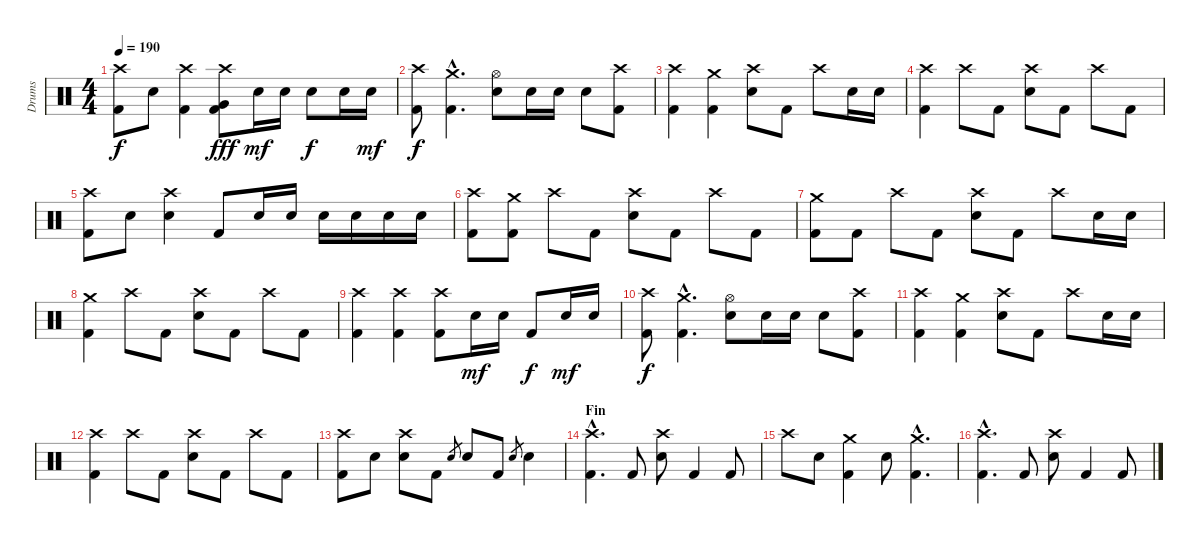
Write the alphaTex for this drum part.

\track ("Drums" "Drums") {instrument percussion}
\staff {score}
\articulation defaults
\ts (4 4)
\tempo 190
\clef neutral
\ks c
("Crash high (hit)" "Kick (hit) 2").8{dy f} "Electric Snare (hit)".8 ("Crash high (hit)" "Kick (hit) 2").4 ("Crash high (hit)" "Very Low Tom (hit)" "Kick (hit) 2").8{dy fff} "Electric Snare (hit)".16{dy mf} "Electric Snare (hit)".16 "Electric Snare (hit)".8{dy f} "Electric Snare (hit)".16 "Electric Snare (hit)".16{dy mf} |
("Crash high (hit)" "Kick (hit) 2").8{dy f} ("Crash medium (hit)"{hac} "Kick (hit) 2"{hac}).4{d} ("Hi-Hat (open)" "Electric Snare (hit)").8 "Electric Snare (hit)".16 "Electric Snare (hit)".16 "Electric Snare (hit)".8 ("Crash high (hit)" "Kick (hit) 2").8 |
("Crash high (hit)" "Kick (hit) 2").4 ("Crash medium (hit)" "Kick (hit) 2").4 ("Crash high (hit)" "Electric Snare (hit)").8 "Kick (hit) 2".8 "Crash high (hit)".8 "Electric Snare (hit)".16 "Electric Snare (hit)".16 |
("Crash high (hit)" "Kick (hit) 2").4 "Crash high (hit)".8 "Kick (hit) 2".8 ("Crash high (hit)" "Electric Snare (hit)").8 "Kick (hit) 2".8 "Crash high (hit)".8 "Kick (hit) 2".8 |
("Crash high (hit)" "Kick (hit) 2").8 "Electric Snare (hit)".8 ("Crash high (hit)" "Electric Snare (hit)").4 "Kick (hit) 2".8 "Electric Snare (hit)".16 "Electric Snare (hit)".16 "Electric Snare (hit)".16 "Electric Snare (hit)".16 "Electric Snare (hit)".16 "Electric Snare (hit)".16 |
("Crash high (hit)" "Kick (hit) 2").8 ("Crash medium (hit)" "Kick (hit) 2").8 "Crash high (hit)".8 "Kick (hit) 2".8 ("Crash high (hit)" "Electric Snare (hit)").8 "Kick (hit) 2".8 "Crash high (hit)".8 "Kick (hit) 2".8 |
("Crash medium (hit)" "Kick (hit) 2").8 "Kick (hit) 2".8 "Crash high (hit)".8 "Kick (hit) 2".8 ("Crash high (hit)" "Electric Snare (hit)").8 "Kick (hit) 2".8 "Crash high (hit)".8 "Electric Snare (hit)".16 "Electric Snare (hit)".16 |
("Crash medium (hit)" "Kick (hit) 2").4 "Crash high (hit)".8 "Kick (hit) 2".8 ("Crash high (hit)" "Electric Snare (hit)").8 "Kick (hit) 2".8 "Crash high (hit)".8 "Kick (hit) 2".8 |
("Crash high (hit)" "Kick (hit) 2").4 ("Crash high (hit)" "Kick (hit) 2").4 ("Crash high (hit)" "Kick (hit) 2").8 "Electric Snare (hit)".16{dy mf} "Electric Snare (hit)".16 "Kick (hit) 2".8{dy f} "Electric Snare (hit)".16{dy mf} "Electric Snare (hit)".16 |
("Crash high (hit)" "Kick (hit) 2").8{dy f} ("Crash medium (hit)"{hac} "Kick (hit) 2"{hac}).4{d} ("Hi-Hat (open)" "Electric Snare (hit)").8 "Electric Snare (hit)".16 "Electric Snare (hit)".16 "Electric Snare (hit)".8 ("Crash high (hit)" "Kick (hit) 2").8 |
("Crash high (hit)" "Kick (hit) 2").4 ("Crash medium (hit)" "Kick (hit) 2").4 ("Crash high (hit)" "Electric Snare (hit)").8 "Kick (hit) 2".8 "Crash high (hit)".8 "Electric Snare (hit)".16 "Electric Snare (hit)".16 |
("Crash high (hit)" "Kick (hit) 2").4 "Crash high (hit)".8 "Kick (hit) 2".8 ("Crash high (hit)" "Electric Snare (hit)").8 "Kick (hit) 2".8 "Crash high (hit)".8 "Kick (hit) 2".8 |
("Crash high (hit)" "Kick (hit) 2").8 "Electric Snare (hit)".8 ("Crash high (hit)" "Electric Snare (hit)").8 "Kick (hit) 2".8 "Electric Snare (hit)".8{gr} "Electric Snare (hit)".8 "Kick (hit) 2".8 "Electric Snare (hit)".8{gr} "Electric Snare (hit)".4 |
\section ("" "Fin")
("Crash high (hit)"{hac} "Kick (hit) 2"{hac}).4{d} "Kick (hit) 2".8 ("Crash high (hit)" "Electric Snare (hit)").8 "Kick (hit) 2".4 "Kick (hit) 2".8 |
"Crash high (hit)".8 "Electric Snare (hit)".8 ("Crash medium (hit)" "Kick (hit) 2").4 "Electric Snare (hit)".8 ("Crash medium (hit)"{hac} "Kick (hit) 2"{hac}).4{d} |
("Crash high (hit)"{hac} "Kick (hit) 2"{hac}).4{d} "Kick (hit) 2".8 ("Crash high (hit)" "Electric Snare (hit)").8 "Kick (hit) 2".4 "Kick (hit) 2".8
